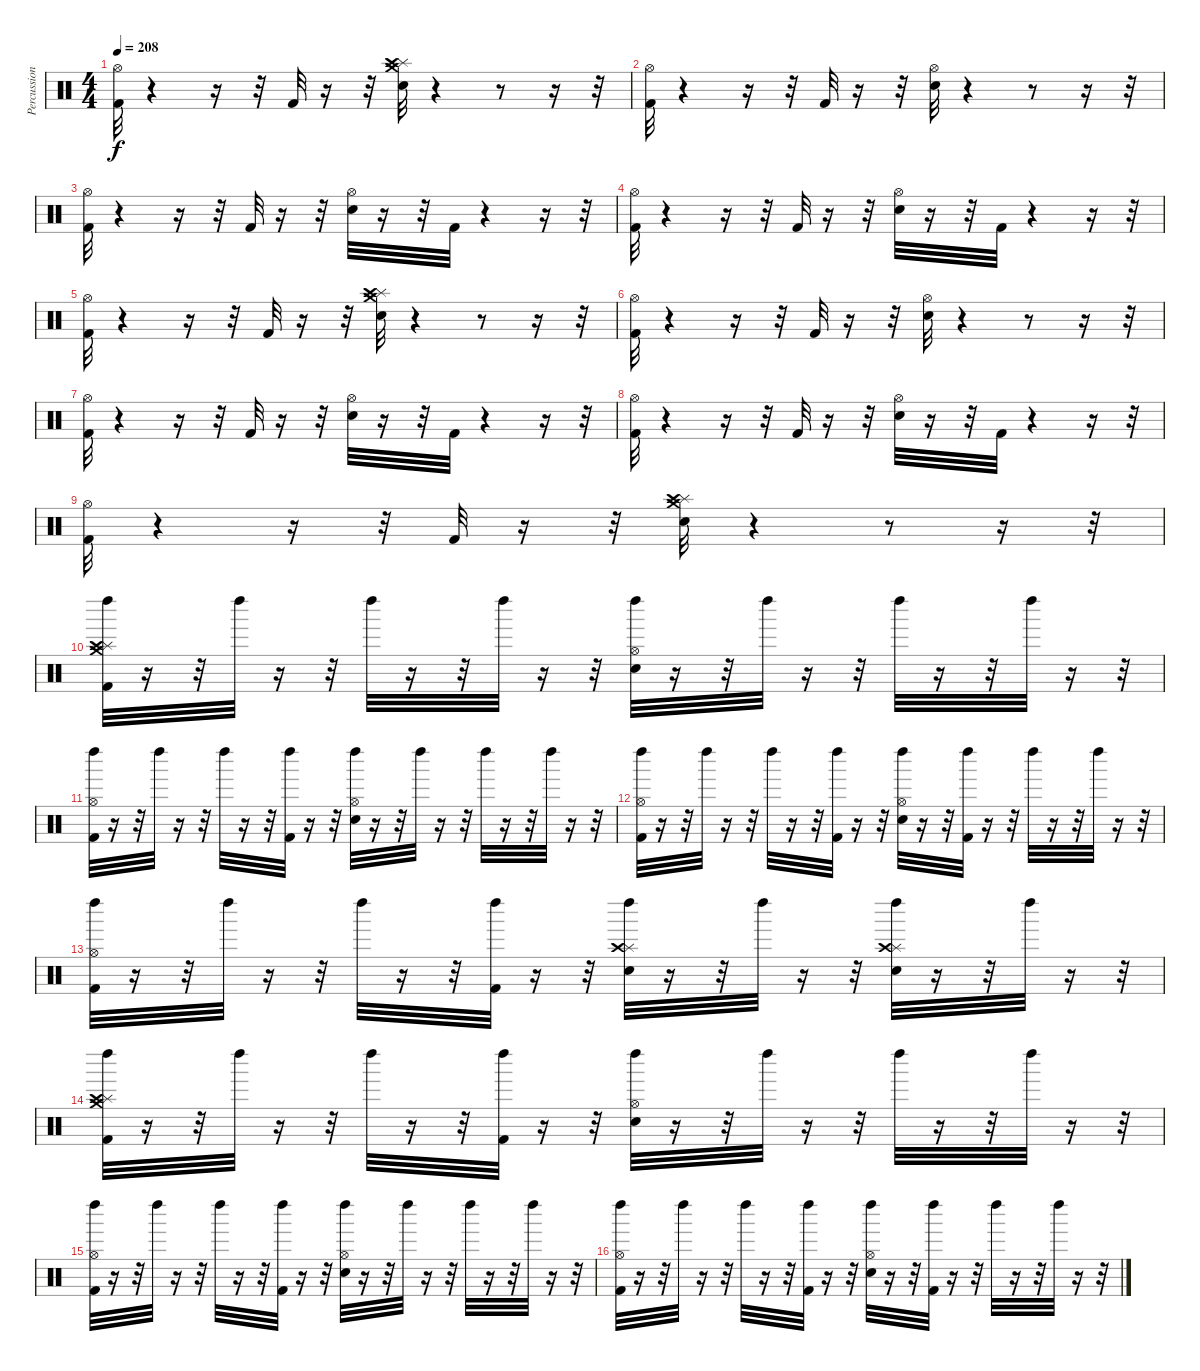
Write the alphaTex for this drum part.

\track ("Percussion" "Percussion") {instrument percussion}
\staff {score}
\articulation defaults
\ts (4 4)
\tempo 208
\clef neutral
\ks c
("Kick (hit) 2" "Hi-Hat (open)").32{dy f} r.4 r.16 r.32 "Kick (hit) 2".32 r.16 r.32 ("Splash (hit)" "Crash medium (hit)" "Crash high (hit)" "Snare (hit) 2").32 r.4 r.8 r.16 r.32 |
("Kick (hit) 2" "Hi-Hat (open)").32 r.4 r.16 r.32 "Kick (hit) 2".32 r.16 r.32 ("Snare (hit) 2" "Hi-Hat (open)").32 r.4 r.8 r.16 r.32 |
("Kick (hit) 2" "Hi-Hat (open)").32 r.4 r.16 r.32 "Kick (hit) 2".32 r.16 r.32 ("Snare (hit) 2" "Hi-Hat (open)").32 r.16 r.32 "Kick (hit) 2".32 r.4 r.16 r.32 |
("Kick (hit) 2" "Hi-Hat (open)").32 r.4 r.16 r.32 "Kick (hit) 2".32 r.16 r.32 ("Snare (hit) 2" "Hi-Hat (open)").32 r.16 r.32 "Kick (hit) 2".32 r.4 r.16 r.32 |
("Kick (hit) 2" "Hi-Hat (open)").32 r.4 r.16 r.32 "Kick (hit) 2".32 r.16 r.32 ("Splash (hit)" "Crash medium (hit)" "Crash high (hit)" "Snare (hit) 2").32 r.4 r.8 r.16 r.32 |
("Kick (hit) 2" "Hi-Hat (open)").32 r.4 r.16 r.32 "Kick (hit) 2".32 r.16 r.32 ("Snare (hit) 2" "Hi-Hat (open)").32 r.4 r.8 r.16 r.32 |
("Kick (hit) 2" "Hi-Hat (open)").32 r.4 r.16 r.32 "Kick (hit) 2".32 r.16 r.32 ("Snare (hit) 2" "Hi-Hat (open)").32 r.16 r.32 "Kick (hit) 2".32 r.4 r.16 r.32 |
("Kick (hit) 2" "Hi-Hat (open)").32 r.4 r.16 r.32 "Kick (hit) 2".32 r.16 r.32 ("Snare (hit) 2" "Hi-Hat (open)").32 r.16 r.32 "Kick (hit) 2".32 r.4 r.16 r.32 |
("Kick (hit) 2" "Hi-Hat (open)").32 r.4 r.16 r.32 "Kick (hit) 2".32 r.16 r.32 ("Splash (hit)" "Crash medium (hit)" "Crash high (hit)" "Snare (hit) 2").32 r.4 r.8 r.16 r.32 |
("Left Maraca (hit)" "Crash medium (hit)" "Splash (hit)" "Crash high (hit)" "Kick (hit) 2").32 r.16 r.32 "Left Maraca (hit)".32 r.16 r.32 "Left Maraca (hit)".32 r.16 r.32 "Left Maraca (hit)".32 r.16 r.32 ("Left Maraca (hit)" "Hi-Hat (open)" "Snare (hit) 2").32 r.16 r.32 "Left Maraca (hit)".32 r.16 r.32 "Left Maraca (hit)".32 r.16 r.32 "Left Maraca (hit)".32 r.16 r.32 |
("Left Maraca (hit)" "Hi-Hat (open)" "Kick (hit) 2").32 r.16 r.32 "Left Maraca (hit)".32 r.16 r.32 "Left Maraca (hit)".32 r.16 r.32 ("Left Maraca (hit)" "Kick (hit) 2").32 r.16 r.32 ("Left Maraca (hit)" "Hi-Hat (open)" "Snare (hit) 2").32 r.16 r.32 "Left Maraca (hit)".32 r.16 r.32 "Left Maraca (hit)".32 r.16 r.32 "Left Maraca (hit)".32 r.16 r.32 |
("Left Maraca (hit)" "Hi-Hat (open)" "Kick (hit) 2").32 r.16 r.32 "Left Maraca (hit)".32 r.16 r.32 "Left Maraca (hit)".32 r.16 r.32 ("Left Maraca (hit)" "Kick (hit) 2").32 r.16 r.32 ("Left Maraca (hit)" "Hi-Hat (open)" "Snare (hit) 2").32 r.16 r.32 ("Kick (hit) 2" "Left Maraca (hit)").32 r.16 r.32 "Left Maraca (hit)".32 r.16 r.32 "Left Maraca (hit)".32 r.16 r.32 |
("Left Maraca (hit)" "Hi-Hat (open)" "Kick (hit) 2").32 r.16 r.32 "Left Maraca (hit)".32 r.16 r.32 "Left Maraca (hit)".32 r.16 r.32 ("Left Maraca (hit)" "Kick (hit) 2").32 r.16 r.32 ("Splash (hit)" "Crash high (hit)" "Left Maraca (hit)" "Snare (hit) 2").32 r.16 r.32 "Left Maraca (hit)".32 r.16 r.32 ("Splash (hit)" "Crash high (hit)" "Snare (hit) 2" "Left Maraca (hit)").32 r.16 r.32 "Left Maraca (hit)".32 r.16 r.32 |
("Left Maraca (hit)" "Crash medium (hit)" "Splash (hit)" "Crash high (hit)" "Kick (hit) 2").32 r.16 r.32 "Left Maraca (hit)".32 r.16 r.32 "Left Maraca (hit)".32 r.16 r.32 ("Kick (hit) 2" "Left Maraca (hit)").32 r.16 r.32 ("Left Maraca (hit)" "Hi-Hat (open)" "Snare (hit) 2").32 r.16 r.32 "Left Maraca (hit)".32 r.16 r.32 "Left Maraca (hit)".32 r.16 r.32 "Left Maraca (hit)".32 r.16 r.32 |
("Left Maraca (hit)" "Hi-Hat (open)" "Kick (hit) 2").32 r.16 r.32 "Left Maraca (hit)".32 r.16 r.32 "Left Maraca (hit)".32 r.16 r.32 ("Left Maraca (hit)" "Kick (hit) 2").32 r.16 r.32 ("Left Maraca (hit)" "Hi-Hat (open)" "Snare (hit) 2").32 r.16 r.32 "Left Maraca (hit)".32 r.16 r.32 "Left Maraca (hit)".32 r.16 r.32 "Left Maraca (hit)".32 r.16 r.32 |
("Left Maraca (hit)" "Hi-Hat (open)" "Kick (hit) 2").32 r.16 r.32 "Left Maraca (hit)".32 r.16 r.32 "Left Maraca (hit)".32 r.16 r.32 ("Left Maraca (hit)" "Kick (hit) 2").32 r.16 r.32 ("Left Maraca (hit)" "Hi-Hat (open)" "Snare (hit) 2").32 r.16 r.32 ("Kick (hit) 2" "Left Maraca (hit)").32 r.16 r.32 "Left Maraca (hit)".32 r.16 r.32 "Left Maraca (hit)".32 r.16 r.32
